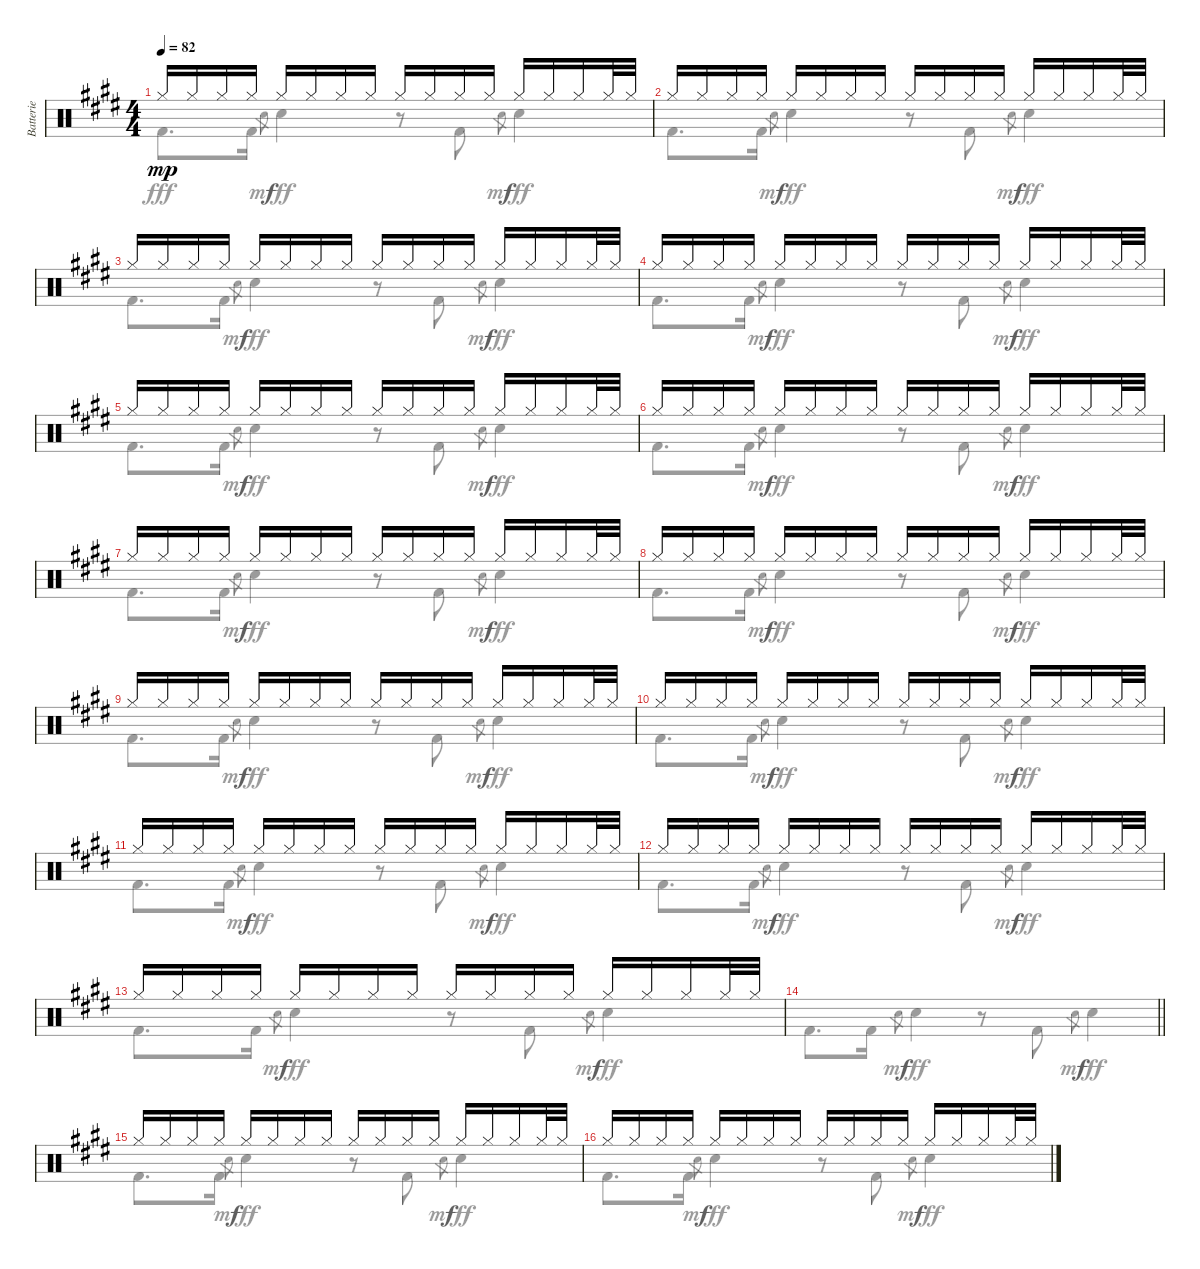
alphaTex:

\track ("Batterie" "Batterie") {instrument percussion}
\staff {score}
\articulation defaults
\voice
\ts (4 4)
\tempo 82
\clef neutral
\ks e "Hi-Hat (closed)".16{dy mp} "Hi-Hat (closed)".16 "Hi-Hat (closed)".16 "Hi-Hat (closed)".16 "Hi-Hat (closed)".16 "Hi-Hat (closed)".16 "Hi-Hat (closed)".16 "Hi-Hat (closed)".16 "Hi-Hat (closed)".16 "Hi-Hat (closed)".16 "Hi-Hat (closed)".16 "Hi-Hat (closed)".16 "Hi-Hat (closed)".16 "Hi-Hat (closed)".16 "Hi-Hat (closed)".16 "Hi-Hat (closed)".32 "Hi-Hat (closed)".32
|
"Hi-Hat (closed)".16 "Hi-Hat (closed)".16 "Hi-Hat (closed)".16 "Hi-Hat (closed)".16 "Hi-Hat (closed)".16 "Hi-Hat (closed)".16 "Hi-Hat (closed)".16 "Hi-Hat (closed)".16 "Hi-Hat (closed)".16 "Hi-Hat (closed)".16 "Hi-Hat (closed)".16 "Hi-Hat (closed)".16 "Hi-Hat (closed)".16 "Hi-Hat (closed)".16 "Hi-Hat (closed)".16 "Hi-Hat (closed)".32 "Hi-Hat (closed)".32 |
"Hi-Hat (closed)".16 "Hi-Hat (closed)".16 "Hi-Hat (closed)".16 "Hi-Hat (closed)".16 "Hi-Hat (closed)".16 "Hi-Hat (closed)".16 "Hi-Hat (closed)".16 "Hi-Hat (closed)".16 "Hi-Hat (closed)".16 "Hi-Hat (closed)".16 "Hi-Hat (closed)".16 "Hi-Hat (closed)".16 "Hi-Hat (closed)".16 "Hi-Hat (closed)".16 "Hi-Hat (closed)".16 "Hi-Hat (closed)".32 "Hi-Hat (closed)".32 |
"Hi-Hat (closed)".16 "Hi-Hat (closed)".16 "Hi-Hat (closed)".16 "Hi-Hat (closed)".16 "Hi-Hat (closed)".16 "Hi-Hat (closed)".16 "Hi-Hat (closed)".16 "Hi-Hat (closed)".16 "Hi-Hat (closed)".16 "Hi-Hat (closed)".16 "Hi-Hat (closed)".16 "Hi-Hat (closed)".16 "Hi-Hat (closed)".16 "Hi-Hat (closed)".16 "Hi-Hat (closed)".16 "Hi-Hat (closed)".32 "Hi-Hat (closed)".32 |
"Hi-Hat (closed)".16 "Hi-Hat (closed)".16 "Hi-Hat (closed)".16 "Hi-Hat (closed)".16 "Hi-Hat (closed)".16 "Hi-Hat (closed)".16 "Hi-Hat (closed)".16 "Hi-Hat (closed)".16 "Hi-Hat (closed)".16 "Hi-Hat (closed)".16 "Hi-Hat (closed)".16 "Hi-Hat (closed)".16 "Hi-Hat (closed)".16 "Hi-Hat (closed)".16 "Hi-Hat (closed)".16 "Hi-Hat (closed)".32 "Hi-Hat (closed)".32 |
"Hi-Hat (closed)".16 "Hi-Hat (closed)".16 "Hi-Hat (closed)".16 "Hi-Hat (closed)".16 "Hi-Hat (closed)".16 "Hi-Hat (closed)".16 "Hi-Hat (closed)".16 "Hi-Hat (closed)".16 "Hi-Hat (closed)".16 "Hi-Hat (closed)".16 "Hi-Hat (closed)".16 "Hi-Hat (closed)".16 "Hi-Hat (closed)".16 "Hi-Hat (closed)".16 "Hi-Hat (closed)".16 "Hi-Hat (closed)".32 "Hi-Hat (closed)".32 |
"Hi-Hat (closed)".16 "Hi-Hat (closed)".16 "Hi-Hat (closed)".16 "Hi-Hat (closed)".16 "Hi-Hat (closed)".16 "Hi-Hat (closed)".16 "Hi-Hat (closed)".16 "Hi-Hat (closed)".16 "Hi-Hat (closed)".16 "Hi-Hat (closed)".16 "Hi-Hat (closed)".16 "Hi-Hat (closed)".16 "Hi-Hat (closed)".16 "Hi-Hat (closed)".16 "Hi-Hat (closed)".16 "Hi-Hat (closed)".32 "Hi-Hat (closed)".32 |
"Hi-Hat (closed)".16 "Hi-Hat (closed)".16 "Hi-Hat (closed)".16 "Hi-Hat (closed)".16 "Hi-Hat (closed)".16 "Hi-Hat (closed)".16 "Hi-Hat (closed)".16 "Hi-Hat (closed)".16 "Hi-Hat (closed)".16 "Hi-Hat (closed)".16 "Hi-Hat (closed)".16 "Hi-Hat (closed)".16 "Hi-Hat (closed)".16 "Hi-Hat (closed)".16 "Hi-Hat (closed)".16 "Hi-Hat (closed)".32 "Hi-Hat (closed)".32 |
"Hi-Hat (closed)".16 "Hi-Hat (closed)".16 "Hi-Hat (closed)".16 "Hi-Hat (closed)".16 "Hi-Hat (closed)".16 "Hi-Hat (closed)".16 "Hi-Hat (closed)".16 "Hi-Hat (closed)".16 "Hi-Hat (closed)".16 "Hi-Hat (closed)".16 "Hi-Hat (closed)".16 "Hi-Hat (closed)".16 "Hi-Hat (closed)".16 "Hi-Hat (closed)".16 "Hi-Hat (closed)".16 "Hi-Hat (closed)".32 "Hi-Hat (closed)".32 |
"Hi-Hat (closed)".16 "Hi-Hat (closed)".16 "Hi-Hat (closed)".16 "Hi-Hat (closed)".16 "Hi-Hat (closed)".16 "Hi-Hat (closed)".16 "Hi-Hat (closed)".16 "Hi-Hat (closed)".16 "Hi-Hat (closed)".16 "Hi-Hat (closed)".16 "Hi-Hat (closed)".16 "Hi-Hat (closed)".16 "Hi-Hat (closed)".16 "Hi-Hat (closed)".16 "Hi-Hat (closed)".16 "Hi-Hat (closed)".32 "Hi-Hat (closed)".32 |
"Hi-Hat (closed)".16 "Hi-Hat (closed)".16 "Hi-Hat (closed)".16 "Hi-Hat (closed)".16 "Hi-Hat (closed)".16 "Hi-Hat (closed)".16 "Hi-Hat (closed)".16 "Hi-Hat (closed)".16 "Hi-Hat (closed)".16 "Hi-Hat (closed)".16 "Hi-Hat (closed)".16 "Hi-Hat (closed)".16 "Hi-Hat (closed)".16 "Hi-Hat (closed)".16 "Hi-Hat (closed)".16 "Hi-Hat (closed)".32 "Hi-Hat (closed)".32 |
"Hi-Hat (closed)".16 "Hi-Hat (closed)".16 "Hi-Hat (closed)".16 "Hi-Hat (closed)".16 "Hi-Hat (closed)".16 "Hi-Hat (closed)".16 "Hi-Hat (closed)".16 "Hi-Hat (closed)".16 "Hi-Hat (closed)".16 "Hi-Hat (closed)".16 "Hi-Hat (closed)".16 "Hi-Hat (closed)".16 "Hi-Hat (closed)".16 "Hi-Hat (closed)".16 "Hi-Hat (closed)".16 "Hi-Hat (closed)".32 "Hi-Hat (closed)".32 |
"Hi-Hat (closed)".16 "Hi-Hat (closed)".16 "Hi-Hat (closed)".16 "Hi-Hat (closed)".16 "Hi-Hat (closed)".16 "Hi-Hat (closed)".16 "Hi-Hat (closed)".16 "Hi-Hat (closed)".16 "Hi-Hat (closed)".16 "Hi-Hat (closed)".16 "Hi-Hat (closed)".16 "Hi-Hat (closed)".16 "Hi-Hat (closed)".16 "Hi-Hat (closed)".16 "Hi-Hat (closed)".16 "Hi-Hat (closed)".32 "Hi-Hat (closed)".32 |
\barLineRight lightlight
|
"Hi-Hat (closed)".16 "Hi-Hat (closed)".16 "Hi-Hat (closed)".16 "Hi-Hat (closed)".16 "Hi-Hat (closed)".16 "Hi-Hat (closed)".16 "Hi-Hat (closed)".16 "Hi-Hat (closed)".16 "Hi-Hat (closed)".16 "Hi-Hat (closed)".16 "Hi-Hat (closed)".16 "Hi-Hat (closed)".16 "Hi-Hat (closed)".16 "Hi-Hat (closed)".16 "Hi-Hat (closed)".16 "Hi-Hat (closed)".32 "Hi-Hat (closed)".32 |
"Hi-Hat (closed)".16 "Hi-Hat (closed)".16 "Hi-Hat (closed)".16 "Hi-Hat (closed)".16 "Hi-Hat (closed)".16 "Hi-Hat (closed)".16 "Hi-Hat (closed)".16 "Hi-Hat (closed)".16 "Hi-Hat (closed)".16 "Hi-Hat (closed)".16 "Hi-Hat (closed)".16 "Hi-Hat (closed)".16 "Hi-Hat (closed)".16 "Hi-Hat (closed)".16 "Hi-Hat (closed)".16 "Hi-Hat (closed)".32 "Hi-Hat (closed)".32
\voice
\clef neutral
\ottava regular
\simile none
\ks e "Kick (hit) 2".8{d dy fff} "Kick (hit) 2".16 "Hand Clap (hit)".8{gr dy mf} "Hand Clap (hit)".4{dy fff}
r.8 "Kick (hit) 2".8 "Hand Clap (hit)".8{gr dy mf} "Hand Clap (hit)".4{dy fff} |
"Kick (hit) 2".8{d} "Kick (hit) 2".16 "Hand Clap (hit)".8{gr dy mf} "Hand Clap (hit)".4{dy fff} r.8 "Kick (hit) 2".8 "Hand Clap (hit)".8{gr dy mf} "Hand Clap (hit)".4{dy fff} |
"Kick (hit) 2".8{d} "Kick (hit) 2".16 "Hand Clap (hit)".8{gr dy mf} "Hand Clap (hit)".4{dy fff} r.8 "Kick (hit) 2".8 "Hand Clap (hit)".8{gr dy mf} "Hand Clap (hit)".4{dy fff} |
"Kick (hit) 2".8{d} "Kick (hit) 2".16 "Hand Clap (hit)".8{gr dy mf} "Hand Clap (hit)".4{dy fff} r.8 "Kick (hit) 2".8 "Hand Clap (hit)".8{gr dy mf} "Hand Clap (hit)".4{dy fff} |
"Kick (hit) 2".8{d} "Kick (hit) 2".16 "Hand Clap (hit)".8{gr dy mf} "Hand Clap (hit)".4{dy fff} r.8 "Kick (hit) 2".8 "Hand Clap (hit)".8{gr dy mf} "Hand Clap (hit)".4{dy fff} |
"Kick (hit) 2".8{d} "Kick (hit) 2".16 "Hand Clap (hit)".8{gr dy mf} "Hand Clap (hit)".4{dy fff} r.8 "Kick (hit) 2".8 "Hand Clap (hit)".8{gr dy mf} "Hand Clap (hit)".4{dy fff} |
"Kick (hit) 2".8{d} "Kick (hit) 2".16 "Hand Clap (hit)".8{gr dy mf} "Hand Clap (hit)".4{dy fff} r.8 "Kick (hit) 2".8 "Hand Clap (hit)".8{gr dy mf} "Hand Clap (hit)".4{dy fff} |
"Kick (hit) 2".8{d} "Kick (hit) 2".16 "Hand Clap (hit)".8{gr dy mf} "Hand Clap (hit)".4{dy fff} r.8 "Kick (hit) 2".8 "Hand Clap (hit)".8{gr dy mf} "Hand Clap (hit)".4{dy fff} |
"Kick (hit) 2".8{d} "Kick (hit) 2".16 "Hand Clap (hit)".8{gr dy mf} "Hand Clap (hit)".4{dy fff} r.8 "Kick (hit) 2".8 "Hand Clap (hit)".8{gr dy mf} "Hand Clap (hit)".4{dy fff} |
"Kick (hit) 2".8{d} "Kick (hit) 2".16 "Hand Clap (hit)".8{gr dy mf} "Hand Clap (hit)".4{dy fff} r.8 "Kick (hit) 2".8 "Hand Clap (hit)".8{gr dy mf} "Hand Clap (hit)".4{dy fff} |
"Kick (hit) 2".8{d} "Kick (hit) 2".16 "Hand Clap (hit)".8{gr dy mf} "Hand Clap (hit)".4{dy fff} r.8 "Kick (hit) 2".8 "Hand Clap (hit)".8{gr dy mf} "Hand Clap (hit)".4{dy fff} |
"Kick (hit) 2".8{d} "Kick (hit) 2".16 "Hand Clap (hit)".8{gr dy mf} "Hand Clap (hit)".4{dy fff} r.8 "Kick (hit) 2".8 "Hand Clap (hit)".8{gr dy mf} "Hand Clap (hit)".4{dy fff} |
"Kick (hit) 2".8{d} "Kick (hit) 2".16 "Hand Clap (hit)".8{gr dy mf} "Hand Clap (hit)".4{dy fff} r.8 "Kick (hit) 2".8 "Hand Clap (hit)".8{gr dy mf} "Hand Clap (hit)".4{dy fff} |
\barLineRight lightlight "Kick (hit) 2".8{d} "Kick (hit) 2".16 "Hand Clap (hit)".8{gr dy mf} "Hand Clap (hit)".4{dy fff}
r.8 "Kick (hit) 2".8 "Hand Clap (hit)".8{gr dy mf} "Hand Clap (hit)".4{dy fff} |
"Kick (hit) 2".8{d} "Kick (hit) 2".16 "Hand Clap (hit)".8{gr dy mf} "Hand Clap (hit)".4{dy fff} r.8 "Kick (hit) 2".8 "Hand Clap (hit)".8{gr dy mf} "Hand Clap (hit)".4{dy fff} |
"Kick (hit) 2".8{d} "Kick (hit) 2".16 "Hand Clap (hit)".8{gr dy mf} "Hand Clap (hit)".4{dy fff} r.8 "Kick (hit) 2".8 "Hand Clap (hit)".8{gr dy mf} "Hand Clap (hit)".4{dy fff}
